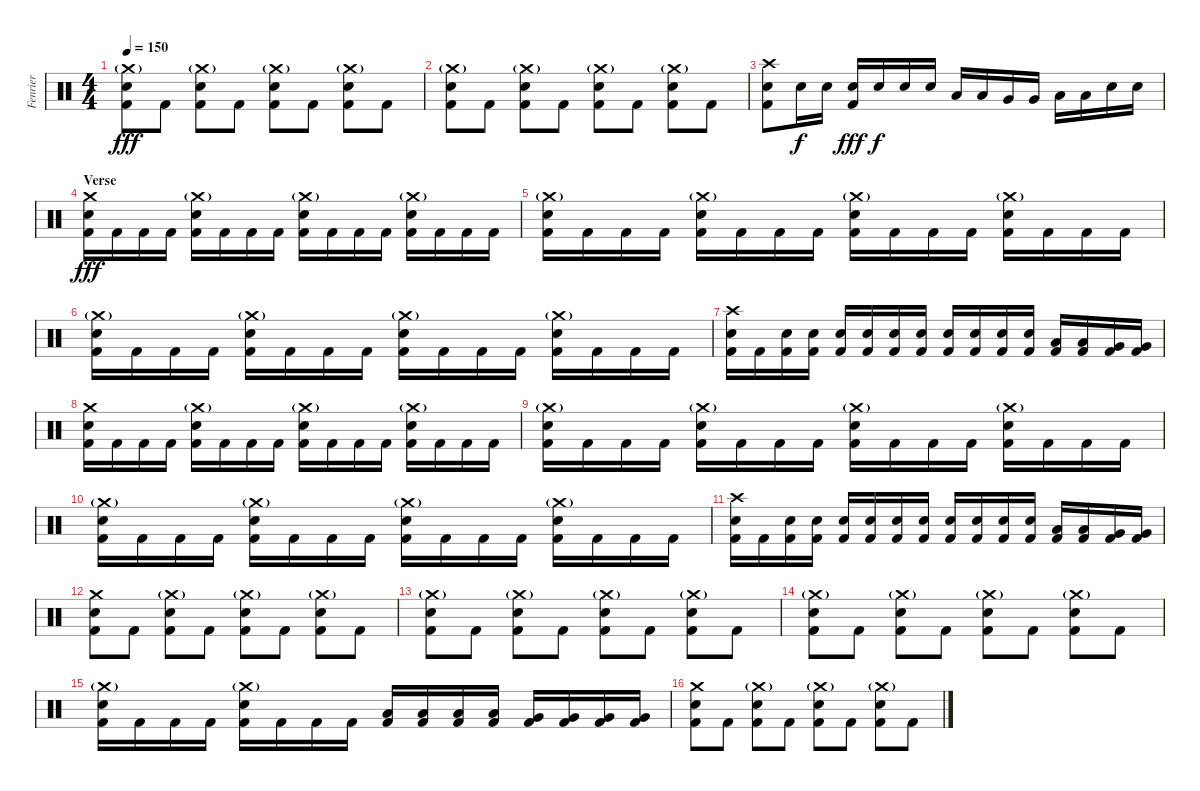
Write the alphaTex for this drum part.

\track ("Fenrier" "Fenrier") {instrument percussion}
\staff {score}
\articulation defaults
\ts (4 4)
\tempo 150
\clef neutral
\ks c
("Crash medium (hit)"{g} "Electric Snare (hit)" "Kick (hit) 2").8{dy fff} "Kick (hit) 2".8 ("Crash medium (hit)"{g} "Electric Snare (hit)" "Kick (hit) 2").8 "Kick (hit) 2".8 ("Crash medium (hit)"{g} "Electric Snare (hit)" "Kick (hit) 2").8 "Kick (hit) 2".8 ("Crash medium (hit)"{g} "Electric Snare (hit)" "Kick (hit) 2").8 "Kick (hit) 2".8 |
("Crash medium (hit)"{g} "Electric Snare (hit)" "Kick (hit) 2").8 "Kick (hit) 2".8 ("Crash medium (hit)"{g} "Electric Snare (hit)" "Kick (hit) 2").8 "Kick (hit) 2".8 ("Crash medium (hit)"{g} "Electric Snare (hit)" "Kick (hit) 2").8 "Kick (hit) 2".8 ("Crash medium (hit)"{g} "Electric Snare (hit)" "Kick (hit) 2").8 "Kick (hit) 2".8 |
("Crash high (hit)" "Electric Snare (hit)" "Kick (hit) 2").8 "Electric Snare (hit)".16{dy f} "Electric Snare (hit)".16 ("Electric Snare (hit)" "Kick (hit) 2").16{dy fff} "Electric Snare (hit)".16{dy f} "Electric Snare (hit)".16 "Electric Snare (hit)".16 "Low Tom (hit)".16 "Low Tom (hit)".16 "Very Low Tom (hit)".16 "Very Low Tom (hit)".16 "Low Floor Tom (hit)".16 "Low Floor Tom (hit)".16 "Electric Snare (hit)".16 "Electric Snare (hit)".16 |
\section ("" "Verse")
("Crash medium (hit)" "Electric Snare (hit)" "Kick (hit) 2").16{dy fff} "Kick (hit) 2".16 "Kick (hit) 2".16 "Kick (hit) 2".16 ("Crash medium (hit)"{g} "Electric Snare (hit)" "Kick (hit) 2").16 "Kick (hit) 2".16 "Kick (hit) 2".16 "Kick (hit) 2".16 ("Crash medium (hit)"{g} "Electric Snare (hit)" "Kick (hit) 2").16 "Kick (hit) 2".16 "Kick (hit) 2".16 "Kick (hit) 2".16 ("Crash medium (hit)"{g} "Electric Snare (hit)" "Kick (hit) 2").16 "Kick (hit) 2".16 "Kick (hit) 2".16 "Kick (hit) 2".16 |
("Crash medium (hit)"{g} "Electric Snare (hit)" "Kick (hit) 2").16 "Kick (hit) 2".16 "Kick (hit) 2".16 "Kick (hit) 2".16 ("Crash medium (hit)"{g} "Electric Snare (hit)" "Kick (hit) 2").16 "Kick (hit) 2".16 "Kick (hit) 2".16 "Kick (hit) 2".16 ("Crash medium (hit)"{g} "Electric Snare (hit)" "Kick (hit) 2").16 "Kick (hit) 2".16 "Kick (hit) 2".16 "Kick (hit) 2".16 ("Crash medium (hit)"{g} "Electric Snare (hit)" "Kick (hit) 2").16 "Kick (hit) 2".16 "Kick (hit) 2".16 "Kick (hit) 2".16 |
("Crash medium (hit)"{g} "Electric Snare (hit)" "Kick (hit) 2").16 "Kick (hit) 2".16 "Kick (hit) 2".16 "Kick (hit) 2".16 ("Crash medium (hit)"{g} "Electric Snare (hit)" "Kick (hit) 2").16 "Kick (hit) 2".16 "Kick (hit) 2".16 "Kick (hit) 2".16 ("Crash medium (hit)"{g} "Electric Snare (hit)" "Kick (hit) 2").16 "Kick (hit) 2".16 "Kick (hit) 2".16 "Kick (hit) 2".16 ("Crash medium (hit)"{g} "Electric Snare (hit)" "Kick (hit) 2").16 "Kick (hit) 2".16 "Kick (hit) 2".16 "Kick (hit) 2".16 |
("Crash high (hit)" "Electric Snare (hit)" "Kick (hit) 2").16 "Kick (hit) 2".16 ("Electric Snare (hit)" "Kick (hit) 2").16 ("Electric Snare (hit)" "Kick (hit) 2").16 ("Electric Snare (hit)" "Kick (hit) 2").16 ("Electric Snare (hit)" "Kick (hit) 2").16 ("Electric Snare (hit)" "Kick (hit) 2").16 ("Electric Snare (hit)" "Kick (hit) 2").16 ("Electric Snare (hit)" "Kick (hit) 2").16 ("Electric Snare (hit)" "Kick (hit) 2").16 ("Electric Snare (hit)" "Kick (hit) 2").16 ("Electric Snare (hit)" "Kick (hit) 2").16 ("Low Tom (hit)" "Kick (hit) 2").16 ("Low Tom (hit)" "Kick (hit) 2").16 ("Very Low Tom (hit)" "Kick (hit) 2").16 ("Very Low Tom (hit)" "Kick (hit) 2").16 |
("Crash medium (hit)" "Electric Snare (hit)" "Kick (hit) 2").16 "Kick (hit) 2".16 "Kick (hit) 2".16 "Kick (hit) 2".16 ("Crash medium (hit)"{g} "Electric Snare (hit)" "Kick (hit) 2").16 "Kick (hit) 2".16 "Kick (hit) 2".16 "Kick (hit) 2".16 ("Crash medium (hit)"{g} "Electric Snare (hit)" "Kick (hit) 2").16 "Kick (hit) 2".16 "Kick (hit) 2".16 "Kick (hit) 2".16 ("Crash medium (hit)"{g} "Electric Snare (hit)" "Kick (hit) 2").16 "Kick (hit) 2".16 "Kick (hit) 2".16 "Kick (hit) 2".16 |
("Crash medium (hit)"{g} "Electric Snare (hit)" "Kick (hit) 2").16 "Kick (hit) 2".16 "Kick (hit) 2".16 "Kick (hit) 2".16 ("Crash medium (hit)"{g} "Electric Snare (hit)" "Kick (hit) 2").16 "Kick (hit) 2".16 "Kick (hit) 2".16 "Kick (hit) 2".16 ("Crash medium (hit)"{g} "Electric Snare (hit)" "Kick (hit) 2").16 "Kick (hit) 2".16 "Kick (hit) 2".16 "Kick (hit) 2".16 ("Crash medium (hit)"{g} "Electric Snare (hit)" "Kick (hit) 2").16 "Kick (hit) 2".16 "Kick (hit) 2".16 "Kick (hit) 2".16 |
("Crash medium (hit)"{g} "Electric Snare (hit)" "Kick (hit) 2").16 "Kick (hit) 2".16 "Kick (hit) 2".16 "Kick (hit) 2".16 ("Crash medium (hit)"{g} "Electric Snare (hit)" "Kick (hit) 2").16 "Kick (hit) 2".16 "Kick (hit) 2".16 "Kick (hit) 2".16 ("Crash medium (hit)"{g} "Electric Snare (hit)" "Kick (hit) 2").16 "Kick (hit) 2".16 "Kick (hit) 2".16 "Kick (hit) 2".16 ("Crash medium (hit)"{g} "Electric Snare (hit)" "Kick (hit) 2").16 "Kick (hit) 2".16 "Kick (hit) 2".16 "Kick (hit) 2".16 |
("Crash high (hit)" "Electric Snare (hit)" "Kick (hit) 2").16 "Kick (hit) 2".16 ("Electric Snare (hit)" "Kick (hit) 2").16 ("Electric Snare (hit)" "Kick (hit) 2").16 ("Electric Snare (hit)" "Kick (hit) 2").16 ("Electric Snare (hit)" "Kick (hit) 2").16 ("Electric Snare (hit)" "Kick (hit) 2").16 ("Electric Snare (hit)" "Kick (hit) 2").16 ("Electric Snare (hit)" "Kick (hit) 2").16 ("Electric Snare (hit)" "Kick (hit) 2").16 ("Electric Snare (hit)" "Kick (hit) 2").16 ("Electric Snare (hit)" "Kick (hit) 2").16 ("Low Tom (hit)" "Kick (hit) 2").16 ("Low Tom (hit)" "Kick (hit) 2").16 ("Very Low Tom (hit)" "Kick (hit) 2").16 ("Very Low Tom (hit)" "Kick (hit) 2").16 |
("Crash medium (hit)" "Electric Snare (hit)" "Kick (hit) 2").8 "Kick (hit) 2".8 ("Crash medium (hit)"{g} "Electric Snare (hit)" "Kick (hit) 2").8 "Kick (hit) 2".8 ("Crash medium (hit)"{g} "Electric Snare (hit)" "Kick (hit) 2").8 "Kick (hit) 2".8 ("Crash medium (hit)"{g} "Electric Snare (hit)" "Kick (hit) 2").8 "Kick (hit) 2".8 |
("Crash medium (hit)"{g} "Electric Snare (hit)" "Kick (hit) 2").8 "Kick (hit) 2".8 ("Crash medium (hit)"{g} "Electric Snare (hit)" "Kick (hit) 2").8 "Kick (hit) 2".8 ("Crash medium (hit)"{g} "Electric Snare (hit)" "Kick (hit) 2").8 "Kick (hit) 2".8 ("Crash medium (hit)"{g} "Electric Snare (hit)" "Kick (hit) 2").8 "Kick (hit) 2".8 |
("Crash medium (hit)"{g} "Electric Snare (hit)" "Kick (hit) 2").8 "Kick (hit) 2".8 ("Crash medium (hit)"{g} "Electric Snare (hit)" "Kick (hit) 2").8 "Kick (hit) 2".8 ("Crash medium (hit)"{g} "Electric Snare (hit)" "Kick (hit) 2").8 "Kick (hit) 2".8 ("Crash medium (hit)"{g} "Electric Snare (hit)" "Kick (hit) 2").8 "Kick (hit) 2".8 |
("Crash medium (hit)"{g} "Electric Snare (hit)" "Kick (hit) 2").16 "Kick (hit) 2".16 "Kick (hit) 2".16 "Kick (hit) 2".16 ("Crash medium (hit)"{g} "Electric Snare (hit)" "Kick (hit) 2").16 "Kick (hit) 2".16 "Kick (hit) 2".16 "Kick (hit) 2".16 ("Low Tom (hit)" "Kick (hit) 2").16 ("Low Tom (hit)" "Kick (hit) 2").16 ("Low Tom (hit)" "Kick (hit) 2").16 ("Low Tom (hit)" "Kick (hit) 2").16 ("Very Low Tom (hit)" "Kick (hit) 2").16 ("Very Low Tom (hit)" "Kick (hit) 2").16 ("Very Low Tom (hit)" "Kick (hit) 2").16 ("Very Low Tom (hit)" "Kick (hit) 2").16 |
("Crash medium (hit)" "Electric Snare (hit)" "Kick (hit) 2").8 "Kick (hit) 2".8 ("Crash medium (hit)"{g} "Electric Snare (hit)" "Kick (hit) 2").8 "Kick (hit) 2".8 ("Crash medium (hit)"{g} "Electric Snare (hit)" "Kick (hit) 2").8 "Kick (hit) 2".8 ("Crash medium (hit)"{g} "Electric Snare (hit)" "Kick (hit) 2").8 "Kick (hit) 2".8
